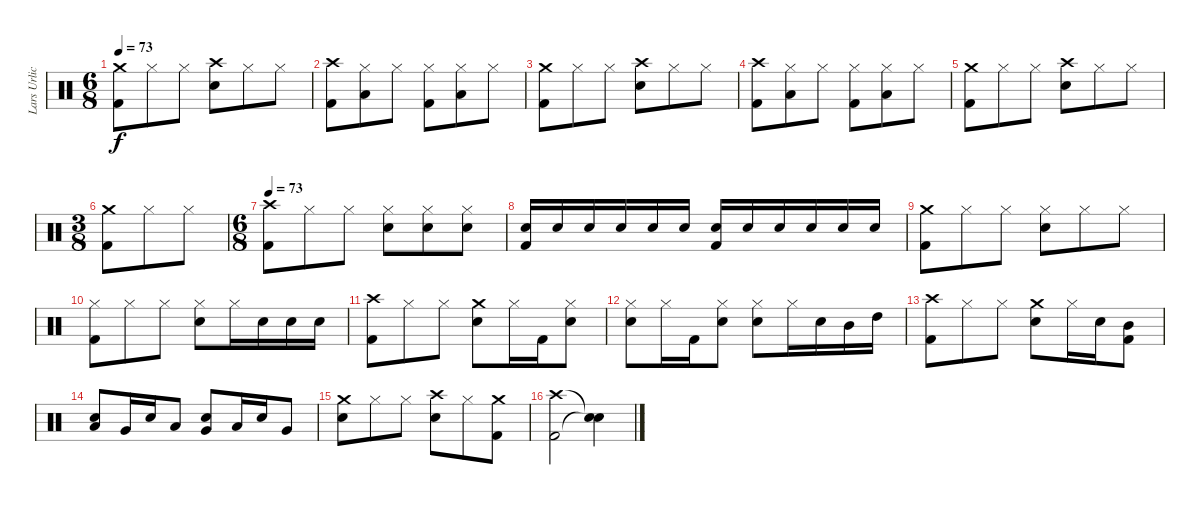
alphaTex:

\track ("Lars Urlich" "Lars Urlic") {instrument percussion}
\staff {score}
\articulation defaults
\ts (6 8)
\tempo 73
\clef neutral
\ks c
("Crash medium (hit)" "Kick (hit) 2").8{dy f} "Hi-Hat (closed)".8 "Hi-Hat (closed)".8 ("Crash high (hit)" "Snare (hit) 2").8 "Hi-Hat (closed)".8 "Hi-Hat (closed)".8 |
("Crash high (hit)" "Kick (hit) 2").8 ("Hi-Hat (closed)" "Low Tom (hit)").8 "Hi-Hat (closed)".8 ("Hi-Hat (closed)" "Kick (hit) 2").8 ("Hi-Hat (closed)" "Low Tom (hit)").8 "Hi-Hat (closed)".8 |
("Crash medium (hit)" "Kick (hit) 2").8 "Hi-Hat (closed)".8 "Hi-Hat (closed)".8 ("Crash high (hit)" "Snare (hit) 2").8 "Hi-Hat (closed)".8 "Hi-Hat (closed)".8 |
("Crash high (hit)" "Kick (hit) 2").8 ("Hi-Hat (closed)" "Low Tom (hit)").8 "Hi-Hat (closed)".8 ("Hi-Hat (closed)" "Kick (hit) 2").8 ("Hi-Hat (closed)" "Low Tom (hit)").8 "Hi-Hat (closed)".8 |
("Crash medium (hit)" "Kick (hit) 2").8 "Hi-Hat (closed)".8 "Hi-Hat (closed)".8 ("Crash high (hit)" "Snare (hit) 2").8 "Hi-Hat (closed)".8 "Hi-Hat (closed)".8 |
\ts (3 8)
("Crash medium (hit)" "Kick (hit) 2").8 "Hi-Hat (closed)".8 "Hi-Hat (closed)".8 |
\ts (6 8)
\tempo 73
("Crash high (hit)" "Kick (hit) 2").8 "Hi-Hat (closed)".8 "Hi-Hat (closed)".8 ("Hi-Hat (closed)" "Snare (hit) 2").8 ("Hi-Hat (closed)" "Snare (hit) 2").8 ("Hi-Hat (closed)" "Snare (hit) 2").8 |
("Snare (hit) 2" "Kick (hit) 2").16 "Snare (hit) 2".16 "Snare (hit) 2".16 "Snare (hit) 2".16 "Snare (hit) 2".16 "Snare (hit) 2".16 ("Snare (hit) 2" "Kick (hit) 2").16 "Snare (hit) 2".16 "Snare (hit) 2".16 "Snare (hit) 2".16 "Snare (hit) 2".16 "Snare (hit) 2".16 |
("Crash medium (hit)" "Kick (hit) 2").8 "Hi-Hat (closed)".8 "Hi-Hat (closed)".8 ("Hi-Hat (closed)" "Snare (hit) 2").8 "Hi-Hat (closed)".8 "Hi-Hat (closed)".8 |
("Hi-Hat (closed)" "Kick (hit) 2").8 "Hi-Hat (closed)".8 "Hi-Hat (closed)".8 ("Hi-Hat (closed)" "Snare (hit) 2").8 "Hi-Hat (closed)".16 "Snare (hit) 2".16 "Snare (hit) 2".16 "Snare (hit) 2".16 |
("Crash high (hit)" "Kick (hit) 2").8 "Hi-Hat (closed)".8 "Hi-Hat (closed)".8 ("Crash medium (hit)" "Snare (hit) 2").8 "Hi-Hat (closed)".16 "Kick (hit) 2".16 ("Hi-Hat (closed)" "Snare (hit) 2").8 |
("Hi-Hat (closed)" "Snare (hit) 2").8 "Hi-Hat (closed)".16 "Kick (hit) 2".16 ("Hi-Hat (closed)" "Snare (hit) 2").8 ("Hi-Hat (closed)" "Snare (hit) 2").8 "Hi-Hat (closed)".16 "Snare (hit) 2".16 "Mid Tom (hit)".16 "High Tom (hit)".16 |
("Crash high (hit)" "Kick (hit) 2").8 "Hi-Hat (closed)".8 "Hi-Hat (closed)".8 ("Crash medium (hit)" "Snare (hit) 2").8 "Hi-Hat (closed)".16 "Snare (hit) 2".16 ("Mid Tom (hit)" "Kick (hit) 2").8 |
("Snare (hit) 2" "Low Floor Tom (hit)").8 "Very Low Tom (hit)".16 "Snare (hit) 2".16 "Low Floor Tom (hit)".8 ("Snare (hit) 2" "Very Low Tom (hit)").8 "Low Floor Tom (hit)".16 "Snare (hit) 2".16 "Very Low Tom (hit)".8 |
("Crash medium (hit)" "Snare (hit) 2").8 "Hi-Hat (closed)".8 "Hi-Hat (closed)".8 ("Crash high (hit)" "Snare (hit) 2").8 "Hi-Hat (closed)".8 ("Crash medium (hit)" "Kick (hit) 2").8 |
("Crash high (hit)" "Kick (hit) 2").2 ("Snare (hit)"{t} "Snare (hit)"{t}).4
